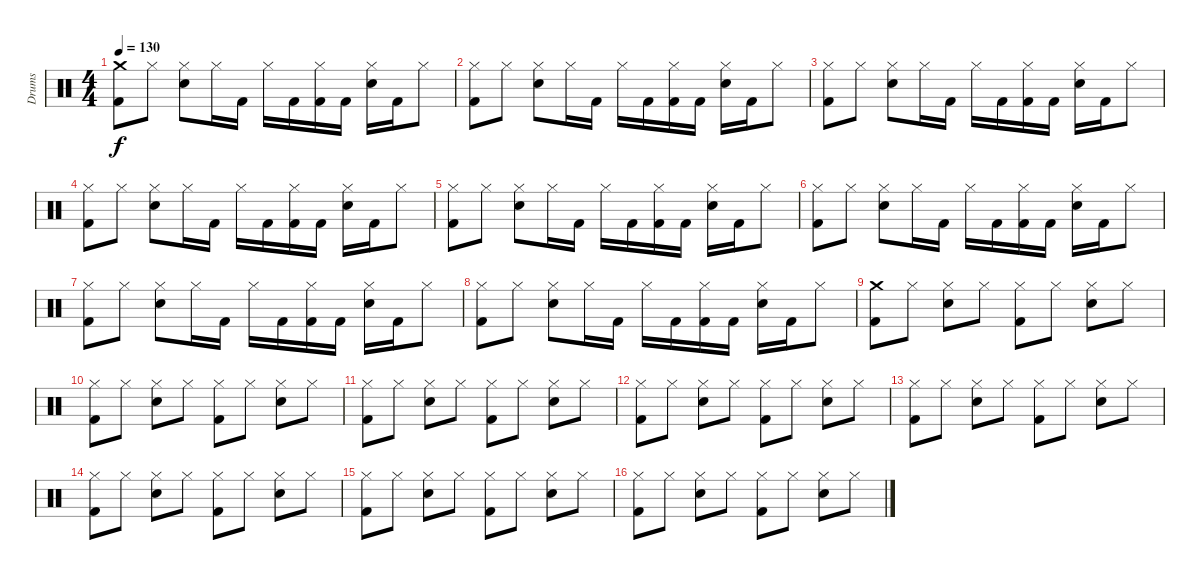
\track ("Drums" "Drums") {instrument percussion}
\staff {score}
\articulation defaults
\ts (4 4)
\tempo 130
\clef neutral
\ks c
("Crash medium (hit)" "Kick (hit) 2").8{dy f} "Hi-Hat (closed)".8 ("Hi-Hat (closed)" "Snare (hit) 2").8 "Hi-Hat (closed)".16 "Kick (hit) 2".16 "Hi-Hat (closed)".16 "Kick (hit) 2".16 ("Hi-Hat (closed)" "Kick (hit) 2").16 "Kick (hit) 2".16 ("Hi-Hat (closed)" "Snare (hit) 2").16 "Kick (hit) 2".16 "Hi-Hat (closed)".8 |
("Hi-Hat (closed)" "Kick (hit) 2").8 "Hi-Hat (closed)".8 ("Hi-Hat (closed)" "Snare (hit) 2").8 "Hi-Hat (closed)".16 "Kick (hit) 2".16 "Hi-Hat (closed)".16 "Kick (hit) 2".16 ("Hi-Hat (closed)" "Kick (hit) 2").16 "Kick (hit) 2".16 ("Hi-Hat (closed)" "Snare (hit) 2").16 "Kick (hit) 2".16 "Hi-Hat (closed)".8 |
("Hi-Hat (closed)" "Kick (hit) 2").8 "Hi-Hat (closed)".8 ("Hi-Hat (closed)" "Snare (hit) 2").8 "Hi-Hat (closed)".16 "Kick (hit) 2".16 "Hi-Hat (closed)".16 "Kick (hit) 2".16 ("Hi-Hat (closed)" "Kick (hit) 2").16 "Kick (hit) 2".16 ("Hi-Hat (closed)" "Snare (hit) 2").16 "Kick (hit) 2".16 "Hi-Hat (closed)".8 |
("Hi-Hat (closed)" "Kick (hit) 2").8 "Hi-Hat (closed)".8 ("Hi-Hat (closed)" "Snare (hit) 2").8 "Hi-Hat (closed)".16 "Kick (hit) 2".16 "Hi-Hat (closed)".16 "Kick (hit) 2".16 ("Hi-Hat (closed)" "Kick (hit) 2").16 "Kick (hit) 2".16 ("Hi-Hat (closed)" "Snare (hit) 2").16 "Kick (hit) 2".16 "Hi-Hat (closed)".8 |
("Hi-Hat (closed)" "Kick (hit) 2").8 "Hi-Hat (closed)".8 ("Hi-Hat (closed)" "Snare (hit) 2").8 "Hi-Hat (closed)".16 "Kick (hit) 2".16 "Hi-Hat (closed)".16 "Kick (hit) 2".16 ("Hi-Hat (closed)" "Kick (hit) 2").16 "Kick (hit) 2".16 ("Hi-Hat (closed)" "Snare (hit) 2").16 "Kick (hit) 2".16 "Hi-Hat (closed)".8 |
("Hi-Hat (closed)" "Kick (hit) 2").8 "Hi-Hat (closed)".8 ("Hi-Hat (closed)" "Snare (hit) 2").8 "Hi-Hat (closed)".16 "Kick (hit) 2".16 "Hi-Hat (closed)".16 "Kick (hit) 2".16 ("Hi-Hat (closed)" "Kick (hit) 2").16 "Kick (hit) 2".16 ("Hi-Hat (closed)" "Snare (hit) 2").16 "Kick (hit) 2".16 "Hi-Hat (closed)".8 |
("Hi-Hat (closed)" "Kick (hit) 2").8 "Hi-Hat (closed)".8 ("Hi-Hat (closed)" "Snare (hit) 2").8 "Hi-Hat (closed)".16 "Kick (hit) 2".16 "Hi-Hat (closed)".16 "Kick (hit) 2".16 ("Hi-Hat (closed)" "Kick (hit) 2").16 "Kick (hit) 2".16 ("Hi-Hat (closed)" "Snare (hit) 2").16 "Kick (hit) 2".16 "Hi-Hat (closed)".8 |
("Hi-Hat (closed)" "Kick (hit) 2").8 "Hi-Hat (closed)".8 ("Hi-Hat (closed)" "Snare (hit) 2").8 "Hi-Hat (closed)".16 "Kick (hit) 2".16 "Hi-Hat (closed)".16 "Kick (hit) 2".16 ("Hi-Hat (closed)" "Kick (hit) 2").16 "Kick (hit) 2".16 ("Hi-Hat (closed)" "Snare (hit) 2").16 "Kick (hit) 2".16 "Hi-Hat (closed)".8 |
("Crash medium (hit)" "Kick (hit) 2").8 "Hi-Hat (closed)".8 ("Hi-Hat (closed)" "Snare (hit) 2").8 "Hi-Hat (closed)".8 ("Hi-Hat (closed)" "Kick (hit) 2").8 "Hi-Hat (closed)".8 ("Hi-Hat (closed)" "Snare (hit) 2").8 "Hi-Hat (closed)".8 |
("Hi-Hat (closed)" "Kick (hit) 2").8 "Hi-Hat (closed)".8 ("Hi-Hat (closed)" "Snare (hit) 2").8 "Hi-Hat (closed)".8 ("Hi-Hat (closed)" "Kick (hit) 2").8 "Hi-Hat (closed)".8 ("Hi-Hat (closed)" "Snare (hit) 2").8 "Hi-Hat (closed)".8 |
("Hi-Hat (closed)" "Kick (hit) 2").8 "Hi-Hat (closed)".8 ("Hi-Hat (closed)" "Snare (hit) 2").8 "Hi-Hat (closed)".8 ("Hi-Hat (closed)" "Kick (hit) 2").8 "Hi-Hat (closed)".8 ("Hi-Hat (closed)" "Snare (hit) 2").8 "Hi-Hat (closed)".8 |
("Hi-Hat (closed)" "Kick (hit) 2").8 "Hi-Hat (closed)".8 ("Hi-Hat (closed)" "Snare (hit) 2").8 "Hi-Hat (closed)".8 ("Hi-Hat (closed)" "Kick (hit) 2").8 "Hi-Hat (closed)".8 ("Hi-Hat (closed)" "Snare (hit) 2").8 "Hi-Hat (closed)".8 |
("Hi-Hat (closed)" "Kick (hit) 2").8 "Hi-Hat (closed)".8 ("Hi-Hat (closed)" "Snare (hit) 2").8 "Hi-Hat (closed)".8 ("Hi-Hat (closed)" "Kick (hit) 2").8 "Hi-Hat (closed)".8 ("Hi-Hat (closed)" "Snare (hit) 2").8 "Hi-Hat (closed)".8 |
("Hi-Hat (closed)" "Kick (hit) 2").8 "Hi-Hat (closed)".8 ("Hi-Hat (closed)" "Snare (hit) 2").8 "Hi-Hat (closed)".8 ("Hi-Hat (closed)" "Kick (hit) 2").8 "Hi-Hat (closed)".8 ("Hi-Hat (closed)" "Snare (hit) 2").8 "Hi-Hat (closed)".8 |
("Hi-Hat (closed)" "Kick (hit) 2").8 "Hi-Hat (closed)".8 ("Hi-Hat (closed)" "Snare (hit) 2").8 "Hi-Hat (closed)".8 ("Hi-Hat (closed)" "Kick (hit) 2").8 "Hi-Hat (closed)".8 ("Hi-Hat (closed)" "Snare (hit) 2").8 "Hi-Hat (closed)".8 |
("Hi-Hat (closed)" "Kick (hit) 2").8 "Hi-Hat (closed)".8 ("Hi-Hat (closed)" "Snare (hit) 2").8 "Hi-Hat (closed)".8 ("Hi-Hat (closed)" "Kick (hit) 2").8 "Hi-Hat (closed)".8 ("Hi-Hat (closed)" "Snare (hit) 2").8 "Hi-Hat (closed)".8
